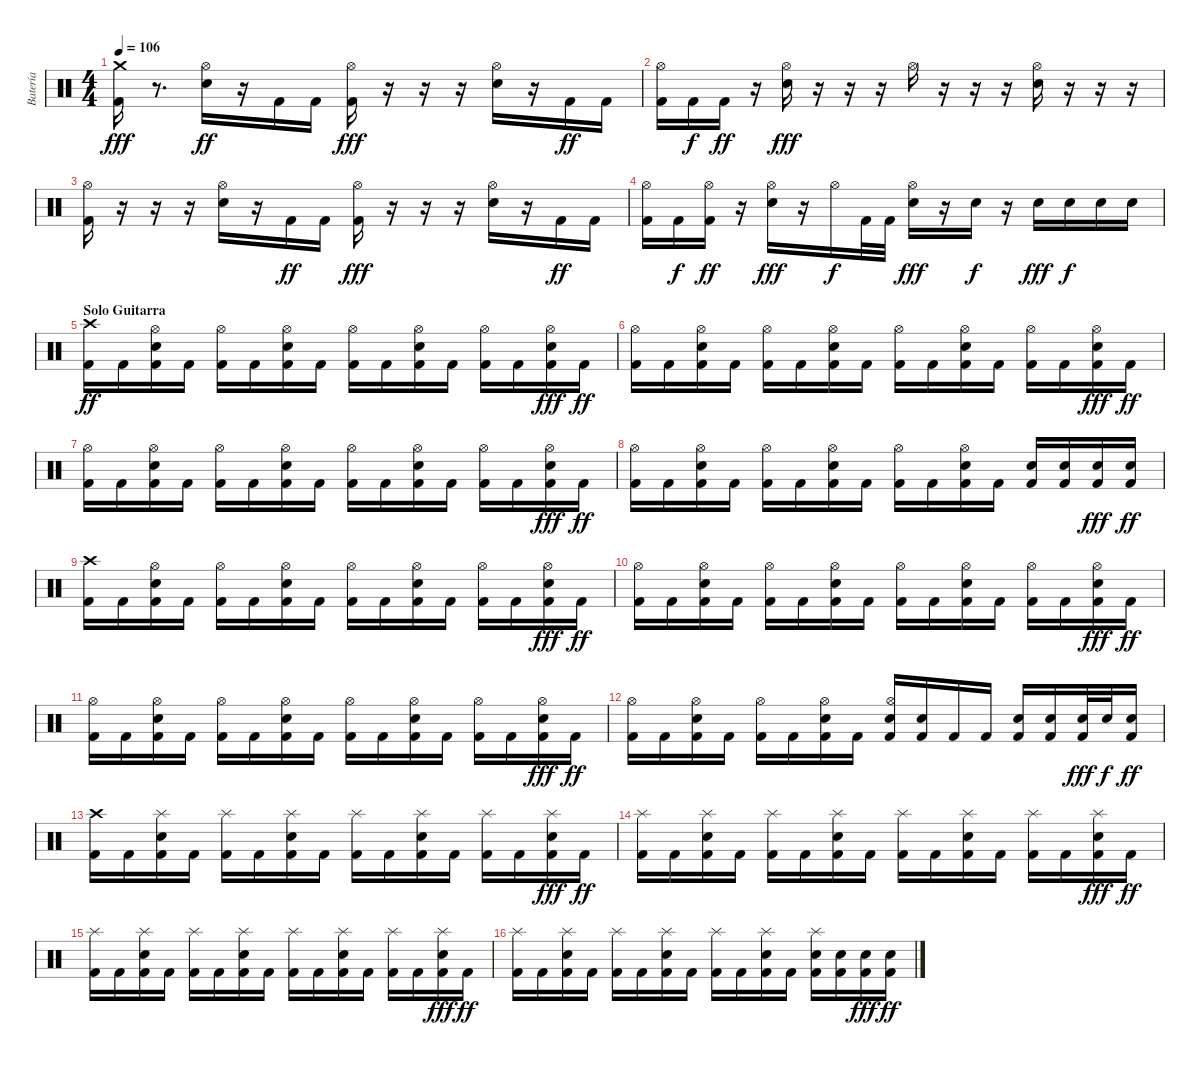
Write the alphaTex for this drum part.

\track ("Batería" "Batería") {instrument percussion}
\staff {score}
\articulation defaults
\ts (4 4)
\tempo 106
\clef neutral
\ks c
("Crash medium (hit)" "Kick (hit) 2").16{dy fff} r.8{d} ("Hi-Hat (open)" "Electric Snare (hit)").16{dy ff} r.16 "Kick (hit) 2".16 "Kick (hit) 2".16 ("Hi-Hat (open)" "Kick (hit) 2").16{dy fff} r.16 r.16 r.16 ("Hi-Hat (open)" "Electric Snare (hit)").16 r.16 "Kick (hit) 2".16{dy ff} "Kick (hit) 2".16 |
("Hi-Hat (open)" "Kick (hit) 2").16 "Kick (hit) 2".16{dy f} "Kick (hit) 2".16{dy ff} r.16 ("Hi-Hat (open)" "Electric Snare (hit)").16{dy fff} r.16 r.16 r.16 "Hi-Hat (open)".16 r.16 r.16 r.16 ("Hi-Hat (open)" "Electric Snare (hit)").16 r.16 r.16 r.16 |
("Hi-Hat (open)" "Kick (hit) 2").16 r.16 r.16 r.16 ("Hi-Hat (open)" "Electric Snare (hit)").16 r.16 "Kick (hit) 2".16{dy ff} "Kick (hit) 2".16 ("Hi-Hat (open)" "Kick (hit) 2").16{dy fff} r.16 r.16 r.16 ("Hi-Hat (open)" "Electric Snare (hit)").16 r.16 "Kick (hit) 2".16{dy ff} "Kick (hit) 2".16 |
("Hi-Hat (open)" "Kick (hit) 2").16 "Kick (hit) 2".16{dy f} ("Hi-Hat (open)" "Kick (hit) 2").16{dy ff} r.16 ("Hi-Hat (open)" "Electric Snare (hit)").16{dy fff} r.16 "Hi-Hat (open)".16{dy f} "Kick (hit) 2".32 "Kick (hit) 2".32 ("Hi-Hat (open)" "Electric Snare (hit)").16{dy fff} r.16 "Electric Snare (hit)".16{dy f} r.16 "Electric Snare (hit)".16{dy fff} "Electric Snare (hit)".16{dy f} "Electric Snare (hit)".16 "Electric Snare (hit)".16 |
\section ("" "Solo Guitarra")
("Crash high (hit)" "Kick (hit) 2").16{dy ff} "Kick (hit) 2".16 ("Hi-Hat (open)" "Electric Snare (hit)" "Kick (hit) 2").16 "Kick (hit) 2".16 ("Hi-Hat (open)" "Kick (hit) 2").16 "Kick (hit) 2".16 ("Hi-Hat (open)" "Electric Snare (hit)" "Kick (hit) 2").16 "Kick (hit) 2".16 ("Hi-Hat (open)" "Kick (hit) 2").16 "Kick (hit) 2".16 ("Hi-Hat (open)" "Electric Snare (hit)" "Kick (hit) 2").16 "Kick (hit) 2".16 ("Hi-Hat (open)" "Kick (hit) 2").16 "Kick (hit) 2".16 ("Hi-Hat (open)" "Electric Snare (hit)" "Kick (hit) 2").16{dy fff} "Kick (hit) 2".16{dy ff} |
("Hi-Hat (open)" "Kick (hit) 2").16 "Kick (hit) 2".16 ("Hi-Hat (open)" "Electric Snare (hit)" "Kick (hit) 2").16 "Kick (hit) 2".16 ("Hi-Hat (open)" "Kick (hit) 2").16 "Kick (hit) 2".16 ("Hi-Hat (open)" "Electric Snare (hit)" "Kick (hit) 2").16 "Kick (hit) 2".16 ("Hi-Hat (open)" "Kick (hit) 2").16 "Kick (hit) 2".16 ("Hi-Hat (open)" "Electric Snare (hit)" "Kick (hit) 2").16 "Kick (hit) 2".16 ("Hi-Hat (open)" "Kick (hit) 2").16 "Kick (hit) 2".16 ("Hi-Hat (open)" "Electric Snare (hit)" "Kick (hit) 2").16{dy fff} "Kick (hit) 2".16{dy ff} |
("Hi-Hat (open)" "Kick (hit) 2").16 "Kick (hit) 2".16 ("Hi-Hat (open)" "Electric Snare (hit)" "Kick (hit) 2").16 "Kick (hit) 2".16 ("Hi-Hat (open)" "Kick (hit) 2").16 "Kick (hit) 2".16 ("Hi-Hat (open)" "Electric Snare (hit)" "Kick (hit) 2").16 "Kick (hit) 2".16 ("Hi-Hat (open)" "Kick (hit) 2").16 "Kick (hit) 2".16 ("Hi-Hat (open)" "Electric Snare (hit)" "Kick (hit) 2").16 "Kick (hit) 2".16 ("Hi-Hat (open)" "Kick (hit) 2").16 "Kick (hit) 2".16 ("Hi-Hat (open)" "Electric Snare (hit)" "Kick (hit) 2").16{dy fff} "Kick (hit) 2".16{dy ff} |
("Hi-Hat (open)" "Kick (hit) 2").16 "Kick (hit) 2".16 ("Hi-Hat (open)" "Electric Snare (hit)" "Kick (hit) 2").16 "Kick (hit) 2".16 ("Hi-Hat (open)" "Kick (hit) 2").16 "Kick (hit) 2".16 ("Hi-Hat (open)" "Electric Snare (hit)" "Kick (hit) 2").16 "Kick (hit) 2".16 ("Hi-Hat (open)" "Kick (hit) 2").16 "Kick (hit) 2".16 ("Hi-Hat (open)" "Electric Snare (hit)" "Kick (hit) 2").16 "Kick (hit) 2".16 ("Electric Snare (hit)" "Kick (hit) 2").16 ("Electric Snare (hit)" "Kick (hit) 2").16 ("Electric Snare (hit)" "Kick (hit) 2").16{dy fff} ("Electric Snare (hit)" "Kick (hit) 2").16{dy ff} |
("Crash high (hit)" "Kick (hit) 2").16 "Kick (hit) 2".16 ("Hi-Hat (open)" "Electric Snare (hit)" "Kick (hit) 2").16 "Kick (hit) 2".16 ("Hi-Hat (open)" "Kick (hit) 2").16 "Kick (hit) 2".16 ("Hi-Hat (open)" "Electric Snare (hit)" "Kick (hit) 2").16 "Kick (hit) 2".16 ("Hi-Hat (open)" "Kick (hit) 2").16 "Kick (hit) 2".16 ("Hi-Hat (open)" "Electric Snare (hit)" "Kick (hit) 2").16 "Kick (hit) 2".16 ("Hi-Hat (open)" "Kick (hit) 2").16 "Kick (hit) 2".16 ("Hi-Hat (open)" "Electric Snare (hit)" "Kick (hit) 2").16{dy fff} "Kick (hit) 2".16{dy ff} |
("Hi-Hat (open)" "Kick (hit) 2").16 "Kick (hit) 2".16 ("Hi-Hat (open)" "Electric Snare (hit)" "Kick (hit) 2").16 "Kick (hit) 2".16 ("Hi-Hat (open)" "Kick (hit) 2").16 "Kick (hit) 2".16 ("Hi-Hat (open)" "Electric Snare (hit)" "Kick (hit) 2").16 "Kick (hit) 2".16 ("Hi-Hat (open)" "Kick (hit) 2").16 "Kick (hit) 2".16 ("Hi-Hat (open)" "Electric Snare (hit)" "Kick (hit) 2").16 "Kick (hit) 2".16 ("Hi-Hat (open)" "Kick (hit) 2").16 "Kick (hit) 2".16 ("Hi-Hat (open)" "Electric Snare (hit)" "Kick (hit) 2").16{dy fff} "Kick (hit) 2".16{dy ff} |
("Hi-Hat (open)" "Kick (hit) 2").16 "Kick (hit) 2".16 ("Hi-Hat (open)" "Electric Snare (hit)" "Kick (hit) 2").16 "Kick (hit) 2".16 ("Hi-Hat (open)" "Kick (hit) 2").16 "Kick (hit) 2".16 ("Hi-Hat (open)" "Electric Snare (hit)" "Kick (hit) 2").16 "Kick (hit) 2".16 ("Hi-Hat (open)" "Kick (hit) 2").16 "Kick (hit) 2".16 ("Hi-Hat (open)" "Electric Snare (hit)" "Kick (hit) 2").16 "Kick (hit) 2".16 ("Hi-Hat (open)" "Kick (hit) 2").16 "Kick (hit) 2".16 ("Hi-Hat (open)" "Electric Snare (hit)" "Kick (hit) 2").16{dy fff} "Kick (hit) 2".16{dy ff} |
("Hi-Hat (open)" "Kick (hit) 2").16 "Kick (hit) 2".16 ("Hi-Hat (open)" "Electric Snare (hit)" "Kick (hit) 2").16 "Kick (hit) 2".16 ("Hi-Hat (open)" "Kick (hit) 2").16 "Kick (hit) 2".16 ("Hi-Hat (open)" "Electric Snare (hit)" "Kick (hit) 2").16 "Kick (hit) 2".16 ("Hi-Hat (open)" "Electric Snare (hit)" "Kick (hit) 2").16 ("Electric Snare (hit)" "Kick (hit) 2").16 "Kick (hit) 2".16 "Kick (hit) 2".16 ("Electric Snare (hit)" "Kick (hit) 2").16 ("Electric Snare (hit)" "Kick (hit) 2").16 ("Electric Snare (hit)" "Kick (hit) 2").32{dy fff} "Electric Snare (hit)".32{dy f} ("Electric Snare (hit)" "Kick (hit) 2").16{dy ff} |
("Crash high (hit)" "Kick (hit) 2").16 "Kick (hit) 2".16 ("Splash (hit)" "Electric Snare (hit)" "Kick (hit) 2").16 "Kick (hit) 2".16 ("Splash (hit)" "Kick (hit) 2").16 "Kick (hit) 2".16 ("Splash (hit)" "Electric Snare (hit)" "Kick (hit) 2").16 "Kick (hit) 2".16 ("Splash (hit)" "Kick (hit) 2").16 "Kick (hit) 2".16 ("Splash (hit)" "Electric Snare (hit)" "Kick (hit) 2").16 "Kick (hit) 2".16 ("Splash (hit)" "Kick (hit) 2").16 "Kick (hit) 2".16 ("Splash (hit)" "Electric Snare (hit)" "Kick (hit) 2").16{dy fff} "Kick (hit) 2".16{dy ff} |
("Splash (hit)" "Kick (hit) 2").16 "Kick (hit) 2".16 ("Splash (hit)" "Electric Snare (hit)" "Kick (hit) 2").16 "Kick (hit) 2".16 ("Splash (hit)" "Kick (hit) 2").16 "Kick (hit) 2".16 ("Splash (hit)" "Electric Snare (hit)" "Kick (hit) 2").16 "Kick (hit) 2".16 ("Splash (hit)" "Kick (hit) 2").16 "Kick (hit) 2".16 ("Splash (hit)" "Electric Snare (hit)" "Kick (hit) 2").16 "Kick (hit) 2".16 ("Splash (hit)" "Kick (hit) 2").16 "Kick (hit) 2".16 ("Splash (hit)" "Electric Snare (hit)" "Kick (hit) 2").16{dy fff} "Kick (hit) 2".16{dy ff} |
("Splash (hit)" "Kick (hit) 2").16 "Kick (hit) 2".16 ("Splash (hit)" "Electric Snare (hit)" "Kick (hit) 2").16 "Kick (hit) 2".16 ("Splash (hit)" "Kick (hit) 2").16 "Kick (hit) 2".16 ("Splash (hit)" "Electric Snare (hit)" "Kick (hit) 2").16 "Kick (hit) 2".16 ("Splash (hit)" "Kick (hit) 2").16 "Kick (hit) 2".16 ("Splash (hit)" "Electric Snare (hit)" "Kick (hit) 2").16 "Kick (hit) 2".16 ("Splash (hit)" "Kick (hit) 2").16 "Kick (hit) 2".16 ("Splash (hit)" "Electric Snare (hit)" "Kick (hit) 2").16{dy fff} "Kick (hit) 2".16{dy ff} |
("Splash (hit)" "Kick (hit) 2").16 "Kick (hit) 2".16 ("Splash (hit)" "Electric Snare (hit)" "Kick (hit) 2").16 "Kick (hit) 2".16 ("Splash (hit)" "Kick (hit) 2").16 "Kick (hit) 2".16 ("Splash (hit)" "Electric Snare (hit)" "Kick (hit) 2").16 "Kick (hit) 2".16 ("Splash (hit)" "Kick (hit) 2").16 "Kick (hit) 2".16 ("Splash (hit)" "Electric Snare (hit)" "Kick (hit) 2").16 "Kick (hit) 2".16 ("Splash (hit)" "Electric Snare (hit)" "Kick (hit) 2").16 ("Electric Snare (hit)" "Kick (hit) 2").16 ("Electric Snare (hit)" "Kick (hit) 2").16{dy fff} ("Electric Snare (hit)" "Kick (hit) 2").16{dy ff}
